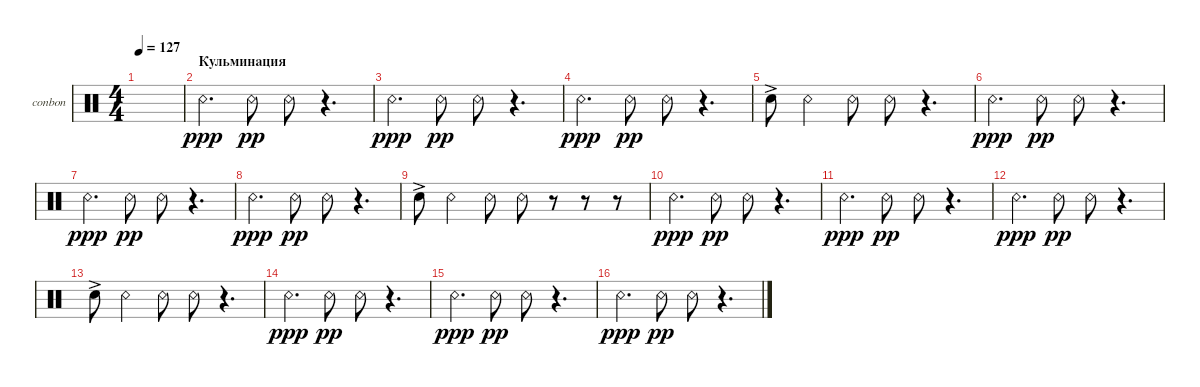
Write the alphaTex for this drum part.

\defaultSystemsLayout 4
\bracketExtendMode groupsimilarinstruments
\firstSystemTrackNameOrientation horizontal
\otherSystemsTrackNameOrientation horizontal
\track ("Bongos N Congas" "conbon") {instrument percussion}
\staff {score}
\articulation defaults
\ts (4 4)
\tempo 127
\clef neutral
\scale
0.333333
\ks c
|
\section ("" "Кульминация")
\scale
0.333333 "Snare (rim shot)".4{d dy ppp} "Snare (rim shot)".8{dy pp} "Snare (rim shot)".8 r.4{d} |
\scale
0.333333 "Snare (rim shot)".4{d dy ppp} "Snare (rim shot)".8{dy pp} "Snare (rim shot)".8 r.4{d} |
\scale
0.333333 "Snare (rim shot)".4{d dy ppp} "Snare (rim shot)".8{dy pp} "Snare (rim shot)".8 r.4{d} |
\scale
0.333333 "Snare (hit) 2"{ac}.8 "Snare (rim shot)".4 "Snare (rim shot)".8 "Snare (rim shot)".8 r.4{d} |
\scale
0.333333 "Snare (rim shot)".4{d dy ppp} "Snare (rim shot)".8{dy pp} "Snare (rim shot)".8 r.4{d} |
\scale
0.333333 "Snare (rim shot)".4{d dy ppp} "Snare (rim shot)".8{dy pp} "Snare (rim shot)".8 r.4{d} |
\scale
0.333333 "Snare (rim shot)".4{d dy ppp} "Snare (rim shot)".8{dy pp} "Snare (rim shot)".8 r.4{d} |
\scale
0.333333 "Snare (hit) 2"{ac}.8 "Snare (rim shot)".4 "Snare (rim shot)".8 "Snare (rim shot)".8 r.8 r.8 r.8 |
\scale
0.333333 "Snare (rim shot)".4{d dy ppp} "Snare (rim shot)".8{dy pp} "Snare (rim shot)".8 r.4{d} |
\scale
0.333333 "Snare (rim shot)".4{d dy ppp} "Snare (rim shot)".8{dy pp} "Snare (rim shot)".8 r.4{d} |
\scale
0.333333 "Snare (rim shot)".4{d dy ppp} "Snare (rim shot)".8{dy pp} "Snare (rim shot)".8 r.4{d} |
\scale
0.333333 "Snare (hit) 2"{ac}.8 "Snare (rim shot)".4 "Snare (rim shot)".8 "Snare (rim shot)".8 r.4{d} |
\scale
0.333333 "Snare (rim shot)".4{d dy ppp} "Snare (rim shot)".8{dy pp} "Snare (rim shot)".8 r.4{d} |
\scale
0.333333 "Snare (rim shot)".4{d dy ppp} "Snare (rim shot)".8{dy pp} "Snare (rim shot)".8 r.4{d} |
\scale
0.333333 "Snare (rim shot)".4{d dy ppp} "Snare (rim shot)".8{dy pp} "Snare (rim shot)".8 r.4{d}
